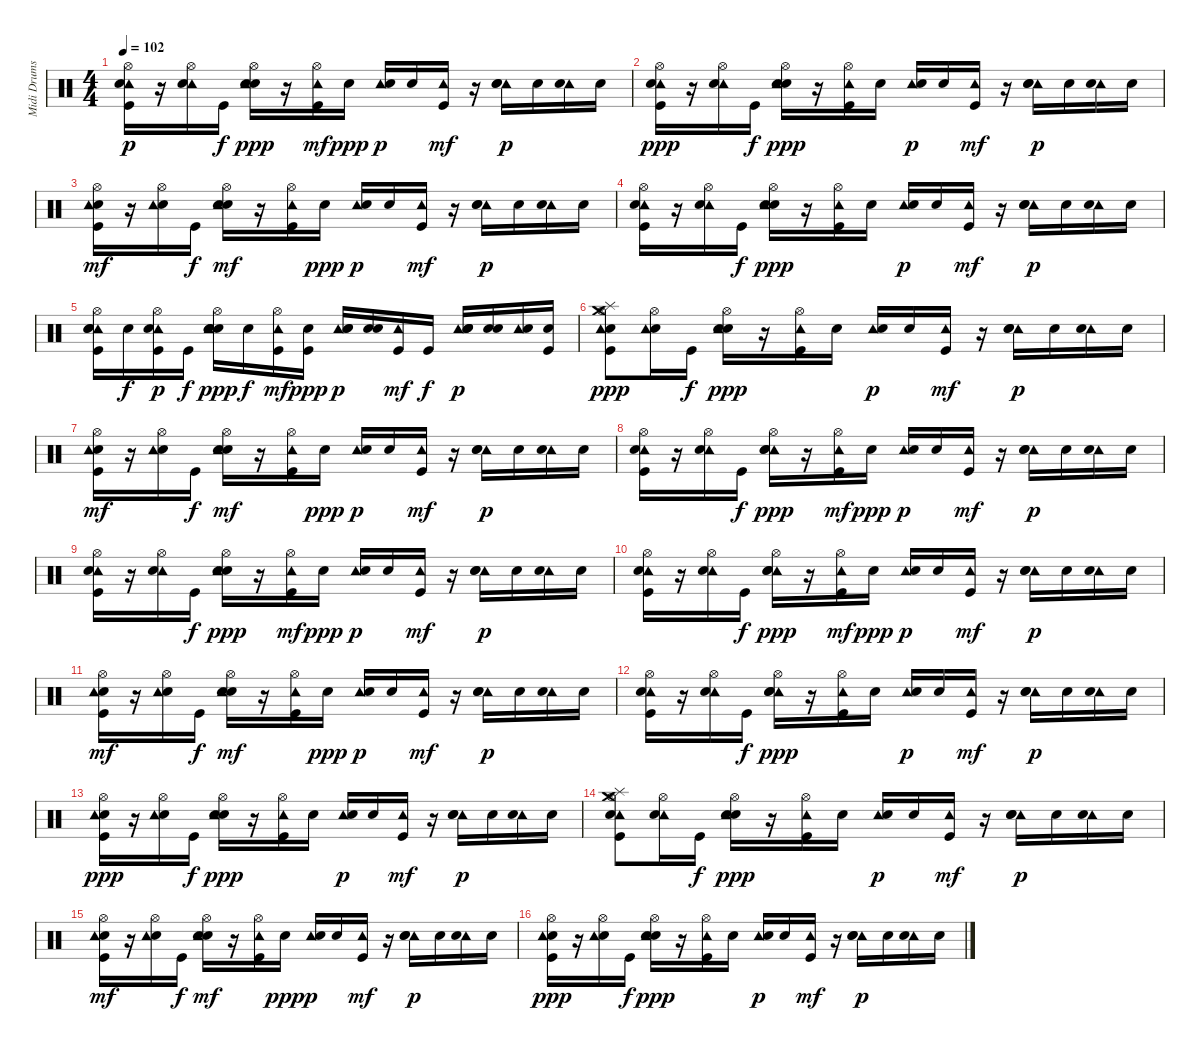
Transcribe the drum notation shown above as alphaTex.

\track ("Midi Drums" "Midi Drums") {instrument percussion}
\staff {score}
\articulation defaults
\ts (4 4)
\tempo 102
\clef neutral
\ks c
("Hi-Hat (open)" "Kick (hit)" "Tambourine (hit)" "Electric Snare (hit)").16{dy p} r.16 ("Hi-Hat (open)" "Tambourine (hit)" "Electric Snare (hit)").16 "Kick (hit)".16{dy f} ("Hi-Hat (open)" "Snare (hit) 2" "Tambourine (hit)" "Electric Snare (hit)").16{dy ppp} r.16 ("Hi-Hat (open)" "Kick (hit)" "Tambourine (hit)").16{dy mf} "Electric Snare (hit)".16{dy ppp} ("Tambourine (hit)" "Electric Snare (hit)").16{dy p} "Electric Snare (hit)".16 ("Kick (hit)" "Tambourine (hit)").16{dy mf} r.16 ("Tambourine (hit)" "Electric Snare (hit)" "Snare (hit) 2").16{dy p} "Electric Snare (hit)".16 ("Tambourine (hit)" "Electric Snare (hit)").16 "Electric Snare (hit)".16 |
("Kick (hit)" "Tambourine (hit)" "Electric Snare (hit)" "Hi-Hat (open)").16{dy ppp} r.16 ("Tambourine (hit)" "Electric Snare (hit)" "Hi-Hat (open)").16 "Kick (hit)".16{dy f} ("Snare (hit) 2" "Tambourine (hit)" "Electric Snare (hit)" "Hi-Hat (open)").16{dy ppp} r.16 ("Kick (hit)" "Tambourine (hit)" "Hi-Hat (open)").16 "Electric Snare (hit)".16 ("Tambourine (hit)" "Electric Snare (hit)").16{dy p} "Electric Snare (hit)".16 ("Kick (hit)" "Tambourine (hit)").16{dy mf} r.16 ("Tambourine (hit)" "Electric Snare (hit)" "Snare (hit) 2").16{dy p} "Electric Snare (hit)".16 ("Tambourine (hit)" "Electric Snare (hit)").16 "Electric Snare (hit)".16 |
("Hi-Hat (open)" "Electric Snare (hit)" "Kick (hit)" "Tambourine (hit)").16{dy mf} r.16 ("Hi-Hat (open)" "Electric Snare (hit)" "Tambourine (hit)").16 "Kick (hit)".16{dy f} ("Hi-Hat (open)" "Electric Snare (hit)" "Snare (hit) 2" "Tambourine (hit)").16{dy mf} r.16 ("Hi-Hat (open)" "Kick (hit)" "Tambourine (hit)").16 "Electric Snare (hit)".16{dy ppp} ("Tambourine (hit)" "Electric Snare (hit)").16{dy p} "Electric Snare (hit)".16 ("Kick (hit)" "Tambourine (hit)").16{dy mf} r.16 ("Tambourine (hit)" "Electric Snare (hit)" "Snare (hit) 2").16{dy p} "Electric Snare (hit)".16 ("Tambourine (hit)" "Electric Snare (hit)").16 "Electric Snare (hit)".16 |
("Kick (hit)" "Tambourine (hit)" "Hi-Hat (open)" "Electric Snare (hit)").16 r.16 ("Tambourine (hit)" "Hi-Hat (open)" "Electric Snare (hit)").16 "Kick (hit)".16{dy f} ("Snare (hit) 2" "Tambourine (hit)" "Hi-Hat (open)" "Electric Snare (hit)").16{dy ppp} r.16 ("Kick (hit)" "Tambourine (hit)" "Hi-Hat (open)").16 "Electric Snare (hit)".16 ("Tambourine (hit)" "Electric Snare (hit)").16{dy p} "Electric Snare (hit)".16 ("Kick (hit)" "Tambourine (hit)").16{dy mf} r.16 ("Tambourine (hit)" "Electric Snare (hit)" "Snare (hit) 2").16{dy p} "Electric Snare (hit)".16 ("Tambourine (hit)" "Electric Snare (hit)").16 "Electric Snare (hit)".16 |
("Kick (hit)" "Hi-Hat (open)" "Tambourine (hit)" "Electric Snare (hit)" "Snare (hit) 2").16 "Snare (hit) 2".16{dy f} ("Kick (hit)" "Hi-Hat (open)" "Tambourine (hit)" "Electric Snare (hit)").16{dy p} "Kick (hit)".16{dy f} ("Snare (hit) 2" "Hi-Hat (open)" "Tambourine (hit)" "Electric Snare (hit)" "Snare (hit) 2").16{dy ppp} "Snare (hit) 2".16{dy f} ("Kick (hit)" "Hi-Hat (open)" "Tambourine (hit)").16{dy mf} ("Kick (hit)" "Electric Snare (hit)").16{dy ppp} ("Tambourine (hit)" "Snare (hit) 2" "Electric Snare (hit)").16{dy p} ("Snare (hit) 2" "Electric Snare (hit)").16 ("Kick (hit)" "Tambourine (hit)").16{dy mf} "Kick (hit)".16{dy f} ("Tambourine (hit)" "Snare (hit) 2" "Electric Snare (hit)" "Snare (hit) 2").16{dy p} ("Snare (hit) 2" "Electric Snare (hit)").16 ("Tambourine (hit)" "Electric Snare (hit)").16 ("Kick (hit)" "Electric Snare (hit)").16 |
("Electric Snare (hit)" "Splash (hit)" "Crash medium (hit)" "Kick (hit)" "Tambourine (hit)" "Hi-Hat (open)").8{dy ppp} ("Electric Snare (hit)" "Tambourine (hit)" "Hi-Hat (open)").16 "Kick (hit)".16{dy f} ("Electric Snare (hit)" "Snare (hit) 2" "Tambourine (hit)" "Hi-Hat (open)").16{dy ppp} r.16 ("Kick (hit)" "Tambourine (hit)" "Hi-Hat (open)").16 "Electric Snare (hit)".16 ("Tambourine (hit)" "Electric Snare (hit)").16{dy p} "Electric Snare (hit)".16 ("Kick (hit)" "Tambourine (hit)").16{dy mf} r.16 ("Tambourine (hit)" "Electric Snare (hit)" "Snare (hit) 2").16{dy p} "Electric Snare (hit)".16 ("Tambourine (hit)" "Electric Snare (hit)").16 "Electric Snare (hit)".16 |
("Hi-Hat (open)" "Electric Snare (hit)" "Kick (hit)" "Tambourine (hit)").16{dy mf} r.16 ("Hi-Hat (open)" "Electric Snare (hit)" "Tambourine (hit)").16 "Kick (hit)".16{dy f} ("Hi-Hat (open)" "Electric Snare (hit)" "Snare (hit) 2" "Tambourine (hit)").16{dy mf} r.16 ("Hi-Hat (open)" "Kick (hit)" "Tambourine (hit)").16 "Electric Snare (hit)".16{dy ppp} ("Tambourine (hit)" "Electric Snare (hit)").16{dy p} "Electric Snare (hit)".16 ("Kick (hit)" "Tambourine (hit)").16{dy mf} r.16 ("Tambourine (hit)" "Electric Snare (hit)" "Snare (hit) 2").16{dy p} "Electric Snare (hit)".16 ("Tambourine (hit)" "Electric Snare (hit)").16 "Electric Snare (hit)".16 |
("Hi-Hat (open)" "Tambourine (hit)" "Electric Snare (hit)" "Kick (hit)").16 r.16 ("Hi-Hat (open)" "Tambourine (hit)" "Electric Snare (hit)").16 "Kick (hit)".16{dy f} ("Hi-Hat (open)" "Tambourine (hit)" "Electric Snare (hit)" "Snare (hit) 2").16{dy ppp} r.16 ("Hi-Hat (open)" "Tambourine (hit)" "Kick (hit)").16{dy mf} "Electric Snare (hit)".16{dy ppp} ("Tambourine (hit)" "Electric Snare (hit)").16{dy p} "Electric Snare (hit)".16 ("Tambourine (hit)" "Kick (hit)").16{dy mf} r.16 ("Tambourine (hit)" "Electric Snare (hit)" "Snare (hit) 2").16{dy p} "Electric Snare (hit)".16 ("Tambourine (hit)" "Electric Snare (hit)").16 "Electric Snare (hit)".16 |
("Hi-Hat (open)" "Kick (hit)" "Tambourine (hit)" "Electric Snare (hit)").16 r.16 ("Hi-Hat (open)" "Tambourine (hit)" "Electric Snare (hit)").16 "Kick (hit)".16{dy f} ("Hi-Hat (open)" "Snare (hit) 2" "Tambourine (hit)" "Electric Snare (hit)").16{dy ppp} r.16 ("Hi-Hat (open)" "Kick (hit)" "Tambourine (hit)").16{dy mf} "Electric Snare (hit)".16{dy ppp} ("Tambourine (hit)" "Electric Snare (hit)").16{dy p} "Electric Snare (hit)".16 ("Kick (hit)" "Tambourine (hit)").16{dy mf} r.16 ("Tambourine (hit)" "Electric Snare (hit)" "Snare (hit) 2").16{dy p} "Electric Snare (hit)".16 ("Tambourine (hit)" "Electric Snare (hit)").16 "Electric Snare (hit)".16 |
("Hi-Hat (open)" "Tambourine (hit)" "Kick (hit)" "Electric Snare (hit)").16 r.16 ("Hi-Hat (open)" "Tambourine (hit)" "Electric Snare (hit)").16 "Kick (hit)".16{dy f} ("Hi-Hat (open)" "Tambourine (hit)" "Snare (hit) 2" "Electric Snare (hit)").16{dy ppp} r.16 ("Hi-Hat (open)" "Tambourine (hit)" "Kick (hit)").16{dy mf} "Electric Snare (hit)".16{dy ppp} ("Tambourine (hit)" "Electric Snare (hit)").16{dy p} "Electric Snare (hit)".16 ("Tambourine (hit)" "Kick (hit)").16{dy mf} r.16 ("Tambourine (hit)" "Electric Snare (hit)" "Snare (hit) 2").16{dy p} "Electric Snare (hit)".16 ("Tambourine (hit)" "Electric Snare (hit)").16 "Electric Snare (hit)".16 |
("Hi-Hat (open)" "Electric Snare (hit)" "Tambourine (hit)" "Kick (hit)").16{dy mf} r.16 ("Hi-Hat (open)" "Electric Snare (hit)" "Tambourine (hit)").16 "Kick (hit)".16{dy f} ("Hi-Hat (open)" "Electric Snare (hit)" "Tambourine (hit)" "Snare (hit) 2").16{dy mf} r.16 ("Hi-Hat (open)" "Tambourine (hit)" "Kick (hit)").16 "Electric Snare (hit)".16{dy ppp} ("Tambourine (hit)" "Electric Snare (hit)").16{dy p} "Electric Snare (hit)".16 ("Tambourine (hit)" "Kick (hit)").16{dy mf} r.16 ("Tambourine (hit)" "Electric Snare (hit)" "Snare (hit) 2").16{dy p} "Electric Snare (hit)".16 ("Tambourine (hit)" "Electric Snare (hit)").16 "Electric Snare (hit)".16 |
("Tambourine (hit)" "Hi-Hat (open)" "Electric Snare (hit)" "Kick (hit)").16 r.16 ("Tambourine (hit)" "Hi-Hat (open)" "Electric Snare (hit)").16 "Kick (hit)".16{dy f} ("Tambourine (hit)" "Hi-Hat (open)" "Electric Snare (hit)" "Snare (hit) 2").16{dy ppp} r.16 ("Tambourine (hit)" "Hi-Hat (open)" "Kick (hit)").16 "Electric Snare (hit)".16 ("Tambourine (hit)" "Electric Snare (hit)").16{dy p} "Electric Snare (hit)".16 ("Tambourine (hit)" "Kick (hit)").16{dy mf} r.16 ("Tambourine (hit)" "Electric Snare (hit)" "Snare (hit) 2").16{dy p} "Electric Snare (hit)".16 ("Tambourine (hit)" "Electric Snare (hit)").16 "Electric Snare (hit)".16 |
("Electric Snare (hit)" "Tambourine (hit)" "Kick (hit)" "Hi-Hat (open)").16{dy ppp} r.16 ("Electric Snare (hit)" "Tambourine (hit)" "Hi-Hat (open)").16 "Kick (hit)".16{dy f} ("Electric Snare (hit)" "Tambourine (hit)" "Snare (hit) 2" "Hi-Hat (open)").16{dy ppp} r.16 ("Tambourine (hit)" "Kick (hit)" "Hi-Hat (open)").16 "Electric Snare (hit)".16 ("Tambourine (hit)" "Electric Snare (hit)").16{dy p} "Electric Snare (hit)".16 ("Tambourine (hit)" "Kick (hit)").16{dy mf} r.16 ("Tambourine (hit)" "Electric Snare (hit)" "Snare (hit) 2").16{dy p} "Electric Snare (hit)".16 ("Tambourine (hit)" "Electric Snare (hit)").16 "Electric Snare (hit)".16 |
("Splash (hit)" "Crash medium (hit)" "Kick (hit)" "Tambourine (hit)" "Hi-Hat (open)" "Electric Snare (hit)").8 ("Tambourine (hit)" "Hi-Hat (open)" "Electric Snare (hit)").16 "Kick (hit)".16{dy f} ("Snare (hit) 2" "Tambourine (hit)" "Hi-Hat (open)" "Electric Snare (hit)").16{dy ppp} r.16 ("Kick (hit)" "Tambourine (hit)" "Hi-Hat (open)").16 "Electric Snare (hit)".16 ("Tambourine (hit)" "Electric Snare (hit)").16{dy p} "Electric Snare (hit)".16 ("Kick (hit)" "Tambourine (hit)").16{dy mf} r.16 ("Tambourine (hit)" "Electric Snare (hit)" "Snare (hit) 2").16{dy p} "Electric Snare (hit)".16 ("Tambourine (hit)" "Electric Snare (hit)").16 "Electric Snare (hit)".16 |
("Kick (hit)" "Hi-Hat (open)" "Electric Snare (hit)" "Tambourine (hit)").16{dy mf} r.16 ("Hi-Hat (open)" "Electric Snare (hit)" "Tambourine (hit)").16 "Kick (hit)".16{dy f} ("Snare (hit) 2" "Hi-Hat (open)" "Electric Snare (hit)" "Tambourine (hit)").16{dy mf} r.16 ("Kick (hit)" "Hi-Hat (open)" "Tambourine (hit)").16 "Electric Snare (hit)".16{dy ppp} ("Tambourine (hit)" "Electric Snare (hit)").16{dy p} "Electric Snare (hit)".16 ("Kick (hit)" "Tambourine (hit)").16{dy mf} r.16 ("Tambourine (hit)" "Electric Snare (hit)" "Snare (hit) 2").16{dy p} "Electric Snare (hit)".16 ("Tambourine (hit)" "Electric Snare (hit)").16 "Electric Snare (hit)".16 |
("Electric Snare (hit)" "Tambourine (hit)" "Kick (hit)" "Hi-Hat (open)").16{dy ppp} r.16 ("Electric Snare (hit)" "Tambourine (hit)" "Hi-Hat (open)").16 "Kick (hit)".16{dy f} ("Electric Snare (hit)" "Tambourine (hit)" "Snare (hit) 2" "Hi-Hat (open)").16{dy ppp} r.16 ("Tambourine (hit)" "Kick (hit)" "Hi-Hat (open)").16 "Electric Snare (hit)".16 ("Tambourine (hit)" "Electric Snare (hit)").16{dy p} "Electric Snare (hit)".16 ("Tambourine (hit)" "Kick (hit)").16{dy mf} r.16 ("Tambourine (hit)" "Electric Snare (hit)" "Snare (hit) 2").16{dy p} "Electric Snare (hit)".16 ("Tambourine (hit)" "Electric Snare (hit)").16 "Electric Snare (hit)".16
